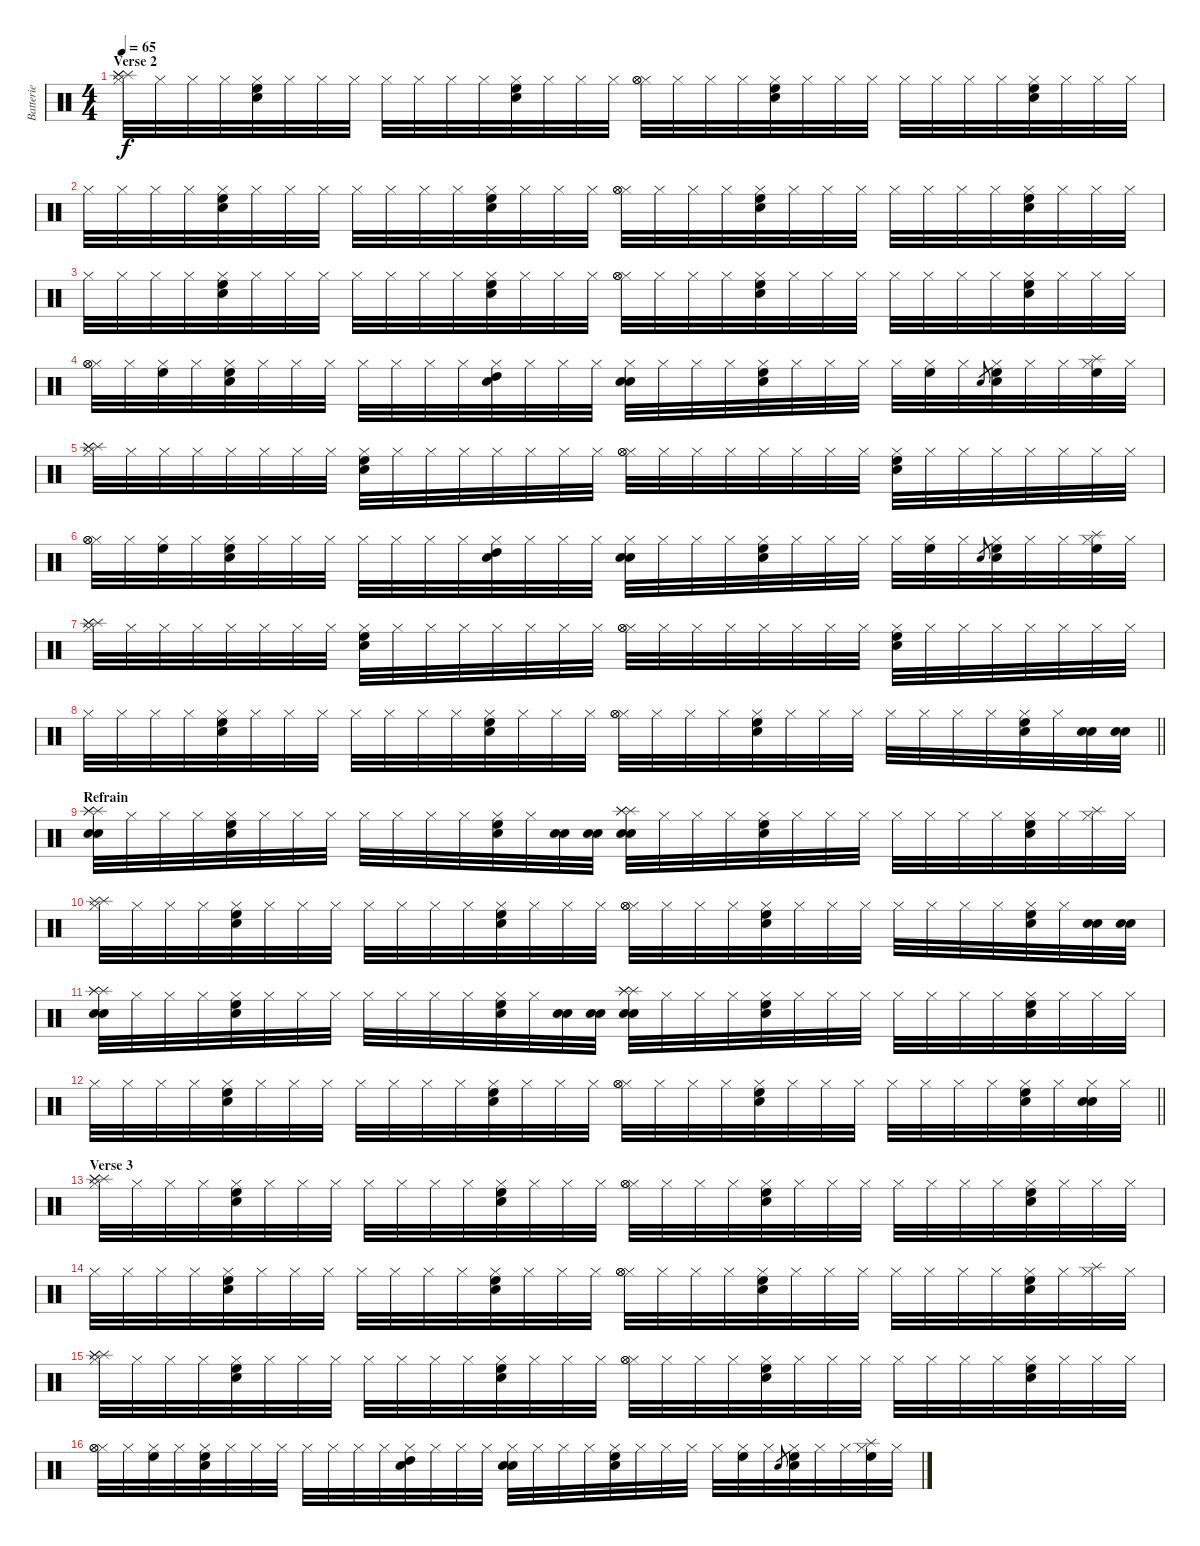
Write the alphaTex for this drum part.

\track ("Batterie" "Batterie") {instrument percussion}
\staff {score}
\articulation defaults
\ts (4 4)
\section ("" "Verse 2")
\tempo 65
\clef neutral
\ks c
("Hi-Hat (closed)" "Splash (hit)" "Splash (hit)" "Splash (hit)").32{dy f} "Hi-Hat (closed)".32 "Hi-Hat (closed)".32 "Hi-Hat (closed)".32 ("Hi-Hat (closed)" "Snare (hit) 2" "High Floor Tom (hit)").32 "Hi-Hat (closed)".32 "Hi-Hat (closed)".32 "Hi-Hat (closed)".32 "Hi-Hat (closed)".32 "Hi-Hat (closed)".32 "Hi-Hat (closed)".32 "Hi-Hat (closed)".32 ("Hi-Hat (closed)" "Snare (hit) 2" "High Floor Tom (hit)").32 "Hi-Hat (closed)".32 "Hi-Hat (closed)".32 "Hi-Hat (closed)".32 ("Hi-Hat (closed)" "Hi-Hat (open)" "Hi-Hat (open)").32 "Hi-Hat (closed)".32 "Hi-Hat (closed)".32 "Hi-Hat (closed)".32 ("Hi-Hat (closed)" "Snare (hit) 2" "High Floor Tom (hit)").32 "Hi-Hat (closed)".32 "Hi-Hat (closed)".32 "Hi-Hat (closed)".32 "Hi-Hat (closed)".32 "Hi-Hat (closed)".32 "Hi-Hat (closed)".32 "Hi-Hat (closed)".32 ("Hi-Hat (closed)" "Snare (hit) 2" "High Floor Tom (hit)").32 "Hi-Hat (closed)".32 "Hi-Hat (closed)".32 "Hi-Hat (closed)".32 |
"Hi-Hat (closed)".32 "Hi-Hat (closed)".32 "Hi-Hat (closed)".32 "Hi-Hat (closed)".32 ("Hi-Hat (closed)" "Snare (hit) 2" "High Floor Tom (hit)").32 "Hi-Hat (closed)".32 "Hi-Hat (closed)".32 "Hi-Hat (closed)".32 "Hi-Hat (closed)".32 "Hi-Hat (closed)".32 "Hi-Hat (closed)".32 "Hi-Hat (closed)".32 ("Hi-Hat (closed)" "Snare (hit) 2" "High Floor Tom (hit)").32 "Hi-Hat (closed)".32 "Hi-Hat (closed)".32 "Hi-Hat (closed)".32 ("Hi-Hat (closed)" "Hi-Hat (open)" "Hi-Hat (open)").32 "Hi-Hat (closed)".32 "Hi-Hat (closed)".32 "Hi-Hat (closed)".32 ("Hi-Hat (closed)" "Snare (hit) 2" "High Floor Tom (hit)").32 "Hi-Hat (closed)".32 "Hi-Hat (closed)".32 "Hi-Hat (closed)".32 "Hi-Hat (closed)".32 "Hi-Hat (closed)".32 "Hi-Hat (closed)".32 "Hi-Hat (closed)".32 ("Hi-Hat (closed)" "Snare (hit) 2" "High Floor Tom (hit)").32 "Hi-Hat (closed)".32 "Hi-Hat (closed)".32 "Hi-Hat (closed)".32 |
"Hi-Hat (closed)".32 "Hi-Hat (closed)".32 "Hi-Hat (closed)".32 "Hi-Hat (closed)".32 ("Hi-Hat (closed)" "Snare (hit) 2" "High Floor Tom (hit)").32 "Hi-Hat (closed)".32 "Hi-Hat (closed)".32 "Hi-Hat (closed)".32 "Hi-Hat (closed)".32 "Hi-Hat (closed)".32 "Hi-Hat (closed)".32 "Hi-Hat (closed)".32 ("Hi-Hat (closed)" "Snare (hit) 2" "High Floor Tom (hit)").32 "Hi-Hat (closed)".32 "Hi-Hat (closed)".32 "Hi-Hat (closed)".32 ("Hi-Hat (closed)" "Hi-Hat (open)" "Hi-Hat (open)").32 "Hi-Hat (closed)".32 "Hi-Hat (closed)".32 "Hi-Hat (closed)".32 ("Hi-Hat (closed)" "Snare (hit) 2" "High Floor Tom (hit)").32 "Hi-Hat (closed)".32 "Hi-Hat (closed)".32 "Hi-Hat (closed)".32 "Hi-Hat (closed)".32 "Hi-Hat (closed)".32 "Hi-Hat (closed)".32 "Hi-Hat (closed)".32 ("Hi-Hat (closed)" "Snare (hit) 2" "High Floor Tom (hit)").32 "Hi-Hat (closed)".32 "Hi-Hat (closed)".32 "Hi-Hat (closed)".32 |
("Hi-Hat (closed)" "Hi-Hat (open)" "Hi-Hat (open)").32 "Hi-Hat (closed)".32 ("Hi-Hat (closed)" "High Floor Tom (hit)").32 "Hi-Hat (closed)".32 ("Hi-Hat (closed)" "Snare (hit) 2" "High Floor Tom (hit)").32 "Hi-Hat (closed)".32 "Hi-Hat (closed)".32 "Hi-Hat (closed)".32 "Hi-Hat (closed)".32 "Hi-Hat (closed)".32 "Hi-Hat (closed)".32 "Hi-Hat (closed)".32 ("Hi-Hat (closed)" "Snare (hit) 2" "High Tom (hit)").32 "Hi-Hat (closed)".32 "Hi-Hat (closed)".32 "Hi-Hat (closed)".32 ("Hi-Hat (closed)" "Snare (hit) 2" "Snare (hit) 2").32 "Hi-Hat (closed)".32 "Hi-Hat (closed)".32 "Hi-Hat (closed)".32 ("Hi-Hat (closed)" "Snare (hit) 2" "High Floor Tom (hit)").32 "Hi-Hat (closed)".32 "Hi-Hat (closed)".32 "Hi-Hat (closed)".32 "Hi-Hat (closed)".32 ("Hi-Hat (closed)" "High Floor Tom (hit)").32 "Hi-Hat (closed)".32 "Snare (hit) 2".8{gr} ("Hi-Hat (closed)" "Snare (hit) 2" "High Floor Tom (hit)").32 "Hi-Hat (closed)".32 "Hi-Hat (closed)".32 ("Hi-Hat (closed)" "Splash (hit)" "High Floor Tom (hit)").32 "Hi-Hat (closed)".32 |
("Hi-Hat (closed)" "Splash (hit)" "Splash (hit)" "Splash (hit)").32 "Hi-Hat (closed)".32 "Hi-Hat (closed)".32 "Hi-Hat (closed)".32 "Hi-Hat (closed)".32 "Hi-Hat (closed)".32 "Hi-Hat (closed)".32 "Hi-Hat (closed)".32 ("Hi-Hat (closed)" "Snare (hit) 2" "High Floor Tom (hit)").32 "Hi-Hat (closed)".32 "Hi-Hat (closed)".32 "Hi-Hat (closed)".32 "Hi-Hat (closed)".32 "Hi-Hat (closed)".32 "Hi-Hat (closed)".32 "Hi-Hat (closed)".32 ("Hi-Hat (closed)" "Hi-Hat (open)" "Hi-Hat (open)").32 "Hi-Hat (closed)".32 "Hi-Hat (closed)".32 "Hi-Hat (closed)".32 "Hi-Hat (closed)".32 "Hi-Hat (closed)".32 "Hi-Hat (closed)".32 "Hi-Hat (closed)".32 ("Hi-Hat (closed)" "Snare (hit) 2" "High Floor Tom (hit)").32 "Hi-Hat (closed)".32 "Hi-Hat (closed)".32 "Hi-Hat (closed)".32 "Hi-Hat (closed)".32 "Hi-Hat (closed)".32 "Hi-Hat (closed)".32 "Hi-Hat (closed)".32 |
("Hi-Hat (closed)" "Hi-Hat (open)" "Hi-Hat (open)").32 "Hi-Hat (closed)".32 ("Hi-Hat (closed)" "High Floor Tom (hit)").32 "Hi-Hat (closed)".32 ("Hi-Hat (closed)" "Snare (hit) 2" "High Floor Tom (hit)").32 "Hi-Hat (closed)".32 "Hi-Hat (closed)".32 "Hi-Hat (closed)".32 "Hi-Hat (closed)".32 "Hi-Hat (closed)".32 "Hi-Hat (closed)".32 "Hi-Hat (closed)".32 ("Hi-Hat (closed)" "Snare (hit) 2" "High Tom (hit)").32 "Hi-Hat (closed)".32 "Hi-Hat (closed)".32 "Hi-Hat (closed)".32 ("Hi-Hat (closed)" "Snare (hit) 2" "Snare (hit) 2").32 "Hi-Hat (closed)".32 "Hi-Hat (closed)".32 "Hi-Hat (closed)".32 ("Hi-Hat (closed)" "Snare (hit) 2" "High Floor Tom (hit)").32 "Hi-Hat (closed)".32 "Hi-Hat (closed)".32 "Hi-Hat (closed)".32 "Hi-Hat (closed)".32 ("Hi-Hat (closed)" "High Floor Tom (hit)").32 "Hi-Hat (closed)".32 "Snare (hit) 2".8{gr} ("Hi-Hat (closed)" "Snare (hit) 2" "High Floor Tom (hit)").32 "Hi-Hat (closed)".32 "Hi-Hat (closed)".32 ("Hi-Hat (closed)" "Splash (hit)" "High Floor Tom (hit)").32 "Hi-Hat (closed)".32 |
("Hi-Hat (closed)" "Splash (hit)" "Splash (hit)" "Splash (hit)").32 "Hi-Hat (closed)".32 "Hi-Hat (closed)".32 "Hi-Hat (closed)".32 "Hi-Hat (closed)".32 "Hi-Hat (closed)".32 "Hi-Hat (closed)".32 "Hi-Hat (closed)".32 ("Hi-Hat (closed)" "Snare (hit) 2" "High Floor Tom (hit)").32 "Hi-Hat (closed)".32 "Hi-Hat (closed)".32 "Hi-Hat (closed)".32 "Hi-Hat (closed)".32 "Hi-Hat (closed)".32 "Hi-Hat (closed)".32 "Hi-Hat (closed)".32 ("Hi-Hat (closed)" "Hi-Hat (open)" "Hi-Hat (open)").32 "Hi-Hat (closed)".32 "Hi-Hat (closed)".32 "Hi-Hat (closed)".32 "Hi-Hat (closed)".32 "Hi-Hat (closed)".32 "Hi-Hat (closed)".32 "Hi-Hat (closed)".32 ("Hi-Hat (closed)" "Snare (hit) 2" "High Floor Tom (hit)").32 "Hi-Hat (closed)".32 "Hi-Hat (closed)".32 "Hi-Hat (closed)".32 "Hi-Hat (closed)".32 "Hi-Hat (closed)".32 "Hi-Hat (closed)".32 "Hi-Hat (closed)".32 |
\barLineRight lightlight "Hi-Hat (closed)".32 "Hi-Hat (closed)".32 "Hi-Hat (closed)".32 "Hi-Hat (closed)".32
("Hi-Hat (closed)" "Snare (hit) 2" "High Floor Tom (hit)").32 "Hi-Hat (closed)".32 "Hi-Hat (closed)".32 "Hi-Hat (closed)".32 "Hi-Hat (closed)".32 "Hi-Hat (closed)".32 "Hi-Hat (closed)".32 "Hi-Hat (closed)".32 ("Hi-Hat (closed)" "Snare (hit) 2" "High Floor Tom (hit)").32 "Hi-Hat (closed)".32 "Hi-Hat (closed)".32 "Hi-Hat (closed)".32 ("Hi-Hat (closed)" "Hi-Hat (open)" "Hi-Hat (open)").32 "Hi-Hat (closed)".32 "Hi-Hat (closed)".32 "Hi-Hat (closed)".32 ("Hi-Hat (closed)" "Snare (hit) 2" "High Floor Tom (hit)").32 "Hi-Hat (closed)".32 "Hi-Hat (closed)".32 "Hi-Hat (closed)".32 "Hi-Hat (closed)".32 "Hi-Hat (closed)".32 "Hi-Hat (closed)".32 "Hi-Hat (closed)".32 ("Hi-Hat (closed)" "Snare (hit) 2" "High Floor Tom (hit)").32 "Hi-Hat (closed)".32 ("Snare (hit) 2" "Snare (hit) 2").32 ("Snare (hit) 2" "Snare (hit) 2").32 |
\section ("" "Refrain")
("Snare (hit) 2" "Snare (hit) 2" "Splash (hit)" "Splash (hit)" "Splash (hit)").32 "Hi-Hat (closed)".32 "Hi-Hat (closed)".32 "Hi-Hat (closed)".32 ("Hi-Hat (closed)" "Snare (hit) 2" "High Floor Tom (hit)").32 "Hi-Hat (closed)".32 "Hi-Hat (closed)".32 "Hi-Hat (closed)".32 "Hi-Hat (closed)".32 "Hi-Hat (closed)".32 "Hi-Hat (closed)".32 "Hi-Hat (closed)".32 ("Hi-Hat (closed)" "Snare (hit) 2" "High Floor Tom (hit)").32 "Hi-Hat (closed)".32 ("Snare (hit) 2" "Snare (hit) 2").32 ("Snare (hit) 2" "Snare (hit) 2").32 ("Snare (hit) 2" "Snare (hit) 2" "Splash (hit)" "Splash (hit)" "Splash (hit)").32 "Hi-Hat (closed)".32 "Hi-Hat (closed)".32 "Hi-Hat (closed)".32 ("Hi-Hat (closed)" "Snare (hit) 2" "High Floor Tom (hit)").32 "Hi-Hat (closed)".32 "Hi-Hat (closed)".32 "Hi-Hat (closed)".32 "Hi-Hat (closed)".32 "Hi-Hat (closed)".32 "Hi-Hat (closed)".32 "Hi-Hat (closed)".32 ("Hi-Hat (closed)" "Snare (hit) 2" "High Floor Tom (hit)").32 "Hi-Hat (closed)".32 ("Hi-Hat (closed)" "Splash (hit)").32 "Hi-Hat (closed)".32 |
("Hi-Hat (closed)" "Splash (hit)" "Splash (hit)").32 "Hi-Hat (closed)".32 "Hi-Hat (closed)".32 "Hi-Hat (closed)".32 ("Hi-Hat (closed)" "Snare (hit) 2" "High Floor Tom (hit)").32 "Hi-Hat (closed)".32 "Hi-Hat (closed)".32 "Hi-Hat (closed)".32 "Hi-Hat (closed)".32 "Hi-Hat (closed)".32 "Hi-Hat (closed)".32 "Hi-Hat (closed)".32 ("Hi-Hat (closed)" "Snare (hit) 2" "High Floor Tom (hit)").32 "Hi-Hat (closed)".32 "Hi-Hat (closed)".32 "Hi-Hat (closed)".32 ("Hi-Hat (closed)" "Hi-Hat (open)" "Hi-Hat (open)").32 "Hi-Hat (closed)".32 "Hi-Hat (closed)".32 "Hi-Hat (closed)".32 ("Hi-Hat (closed)" "Snare (hit) 2" "High Floor Tom (hit)").32 "Hi-Hat (closed)".32 "Hi-Hat (closed)".32 "Hi-Hat (closed)".32 "Hi-Hat (closed)".32 "Hi-Hat (closed)".32 "Hi-Hat (closed)".32 "Hi-Hat (closed)".32 ("Hi-Hat (closed)" "Snare (hit) 2" "High Floor Tom (hit)").32 "Hi-Hat (closed)".32 ("Snare (hit) 2" "Snare (hit) 2").32 ("Snare (hit) 2" "Snare (hit) 2").32 |
("Snare (hit) 2" "Snare (hit) 2" "Splash (hit)" "Splash (hit)" "Splash (hit)").32 "Hi-Hat (closed)".32 "Hi-Hat (closed)".32 "Hi-Hat (closed)".32 ("Hi-Hat (closed)" "Snare (hit) 2" "High Floor Tom (hit)").32 "Hi-Hat (closed)".32 "Hi-Hat (closed)".32 "Hi-Hat (closed)".32 "Hi-Hat (closed)".32 "Hi-Hat (closed)".32 "Hi-Hat (closed)".32 "Hi-Hat (closed)".32 ("Hi-Hat (closed)" "Snare (hit) 2" "High Floor Tom (hit)").32 "Hi-Hat (closed)".32 ("Snare (hit) 2" "Snare (hit) 2").32 ("Snare (hit) 2" "Snare (hit) 2").32 ("Snare (hit) 2" "Snare (hit) 2" "Splash (hit)" "Splash (hit)" "Splash (hit)").32 "Hi-Hat (closed)".32 "Hi-Hat (closed)".32 "Hi-Hat (closed)".32 ("Hi-Hat (closed)" "Snare (hit) 2" "High Floor Tom (hit)").32 "Hi-Hat (closed)".32 "Hi-Hat (closed)".32 "Hi-Hat (closed)".32 "Hi-Hat (closed)".32 "Hi-Hat (closed)".32 "Hi-Hat (closed)".32 "Hi-Hat (closed)".32 ("Hi-Hat (closed)" "Snare (hit) 2" "High Floor Tom (hit)").32 "Hi-Hat (closed)".32 "Hi-Hat (closed)".32 "Hi-Hat (closed)".32 |
\barLineRight lightlight "Hi-Hat (closed)".32 "Hi-Hat (closed)".32 "Hi-Hat (closed)".32 "Hi-Hat (closed)".32
("Hi-Hat (closed)" "Snare (hit) 2" "High Floor Tom (hit)").32 "Hi-Hat (closed)".32 "Hi-Hat (closed)".32 "Hi-Hat (closed)".32 "Hi-Hat (closed)".32 "Hi-Hat (closed)".32 "Hi-Hat (closed)".32 "Hi-Hat (closed)".32 ("Hi-Hat (closed)" "Snare (hit) 2" "High Floor Tom (hit)").32 "Hi-Hat (closed)".32 "Hi-Hat (closed)".32 "Hi-Hat (closed)".32 ("Hi-Hat (closed)" "Hi-Hat (open)" "Hi-Hat (open)").32 "Hi-Hat (closed)".32 "Hi-Hat (closed)".32 "Hi-Hat (closed)".32 ("Hi-Hat (closed)" "Snare (hit) 2" "High Floor Tom (hit)").32 "Hi-Hat (closed)".32 "Hi-Hat (closed)".32 "Hi-Hat (closed)".32 "Hi-Hat (closed)".32 "Hi-Hat (closed)".32 "Hi-Hat (closed)".32 "Hi-Hat (closed)".32 ("Hi-Hat (closed)" "Snare (hit) 2" "High Floor Tom (hit)").32 "Hi-Hat (closed)".32 ("Hi-Hat (closed)" "Snare (hit) 2" "Snare (hit) 2").32 "Hi-Hat (closed)".32 |
\section ("" "Verse 3")
("Hi-Hat (closed)" "Splash (hit)" "Splash (hit)" "Splash (hit)").32 "Hi-Hat (closed)".32 "Hi-Hat (closed)".32 "Hi-Hat (closed)".32 ("Hi-Hat (closed)" "Snare (hit) 2" "High Floor Tom (hit)").32 "Hi-Hat (closed)".32 "Hi-Hat (closed)".32 "Hi-Hat (closed)".32 "Hi-Hat (closed)".32 "Hi-Hat (closed)".32 "Hi-Hat (closed)".32 "Hi-Hat (closed)".32 ("Hi-Hat (closed)" "Snare (hit) 2" "High Floor Tom (hit)").32 "Hi-Hat (closed)".32 "Hi-Hat (closed)".32 "Hi-Hat (closed)".32 ("Hi-Hat (closed)" "Hi-Hat (open)" "Hi-Hat (open)").32 "Hi-Hat (closed)".32 "Hi-Hat (closed)".32 "Hi-Hat (closed)".32 ("Hi-Hat (closed)" "Snare (hit) 2" "High Floor Tom (hit)").32 "Hi-Hat (closed)".32 "Hi-Hat (closed)".32 "Hi-Hat (closed)".32 "Hi-Hat (closed)".32 "Hi-Hat (closed)".32 "Hi-Hat (closed)".32 "Hi-Hat (closed)".32 ("Hi-Hat (closed)" "Snare (hit) 2" "High Floor Tom (hit)").32 "Hi-Hat (closed)".32 "Hi-Hat (closed)".32 "Hi-Hat (closed)".32 |
"Hi-Hat (closed)".32 "Hi-Hat (closed)".32 "Hi-Hat (closed)".32 "Hi-Hat (closed)".32 ("Hi-Hat (closed)" "Snare (hit) 2" "High Floor Tom (hit)").32 "Hi-Hat (closed)".32 "Hi-Hat (closed)".32 "Hi-Hat (closed)".32 "Hi-Hat (closed)".32 "Hi-Hat (closed)".32 "Hi-Hat (closed)".32 "Hi-Hat (closed)".32 ("Hi-Hat (closed)" "Snare (hit) 2" "High Floor Tom (hit)").32 "Hi-Hat (closed)".32 "Hi-Hat (closed)".32 "Hi-Hat (closed)".32 ("Hi-Hat (closed)" "Hi-Hat (open)" "Hi-Hat (open)").32 "Hi-Hat (closed)".32 "Hi-Hat (closed)".32 "Hi-Hat (closed)".32 ("Hi-Hat (closed)" "Snare (hit) 2" "High Floor Tom (hit)").32 "Hi-Hat (closed)".32 "Hi-Hat (closed)".32 "Hi-Hat (closed)".32 "Hi-Hat (closed)".32 "Hi-Hat (closed)".32 "Hi-Hat (closed)".32 "Hi-Hat (closed)".32 ("Hi-Hat (closed)" "Snare (hit) 2" "High Floor Tom (hit)").32 "Hi-Hat (closed)".32 ("Hi-Hat (closed)" "Splash (hit)").32 "Hi-Hat (closed)".32 |
("Hi-Hat (closed)" "Splash (hit)" "Splash (hit)" "Splash (hit)").32 "Hi-Hat (closed)".32 "Hi-Hat (closed)".32 "Hi-Hat (closed)".32 ("Hi-Hat (closed)" "Snare (hit) 2" "High Floor Tom (hit)").32 "Hi-Hat (closed)".32 "Hi-Hat (closed)".32 "Hi-Hat (closed)".32 "Hi-Hat (closed)".32 "Hi-Hat (closed)".32 "Hi-Hat (closed)".32 "Hi-Hat (closed)".32 ("Hi-Hat (closed)" "Snare (hit) 2" "High Floor Tom (hit)").32 "Hi-Hat (closed)".32 "Hi-Hat (closed)".32 "Hi-Hat (closed)".32 ("Hi-Hat (closed)" "Hi-Hat (open)" "Hi-Hat (open)").32 "Hi-Hat (closed)".32 "Hi-Hat (closed)".32 "Hi-Hat (closed)".32 ("Hi-Hat (closed)" "Snare (hit) 2" "High Floor Tom (hit)").32 "Hi-Hat (closed)".32 "Hi-Hat (closed)".32 "Hi-Hat (closed)".32 "Hi-Hat (closed)".32 "Hi-Hat (closed)".32 "Hi-Hat (closed)".32 "Hi-Hat (closed)".32 ("Hi-Hat (closed)" "Snare (hit) 2" "High Floor Tom (hit)").32 "Hi-Hat (closed)".32 "Hi-Hat (closed)".32 "Hi-Hat (closed)".32 |
("Hi-Hat (closed)" "Hi-Hat (open)" "Hi-Hat (open)").32 "Hi-Hat (closed)".32 ("Hi-Hat (closed)" "High Floor Tom (hit)").32 "Hi-Hat (closed)".32 ("Hi-Hat (closed)" "Snare (hit) 2" "High Floor Tom (hit)").32 "Hi-Hat (closed)".32 "Hi-Hat (closed)".32 "Hi-Hat (closed)".32 "Hi-Hat (closed)".32 "Hi-Hat (closed)".32 "Hi-Hat (closed)".32 "Hi-Hat (closed)".32 ("Hi-Hat (closed)" "Snare (hit) 2" "High Tom (hit)").32 "Hi-Hat (closed)".32 "Hi-Hat (closed)".32 "Hi-Hat (closed)".32 ("Hi-Hat (closed)" "Snare (hit) 2" "Snare (hit) 2").32 "Hi-Hat (closed)".32 "Hi-Hat (closed)".32 "Hi-Hat (closed)".32 ("Hi-Hat (closed)" "Snare (hit) 2" "High Floor Tom (hit)").32 "Hi-Hat (closed)".32 "Hi-Hat (closed)".32 "Hi-Hat (closed)".32 "Hi-Hat (closed)".32 ("Hi-Hat (closed)" "High Floor Tom (hit)").32 "Hi-Hat (closed)".32 "Snare (hit) 2".8{gr} ("Hi-Hat (closed)" "Snare (hit) 2" "High Floor Tom (hit)").32 "Hi-Hat (closed)".32 "Hi-Hat (closed)".32 ("Hi-Hat (closed)" "Splash (hit)" "High Floor Tom (hit)").32 "Hi-Hat (closed)".32
